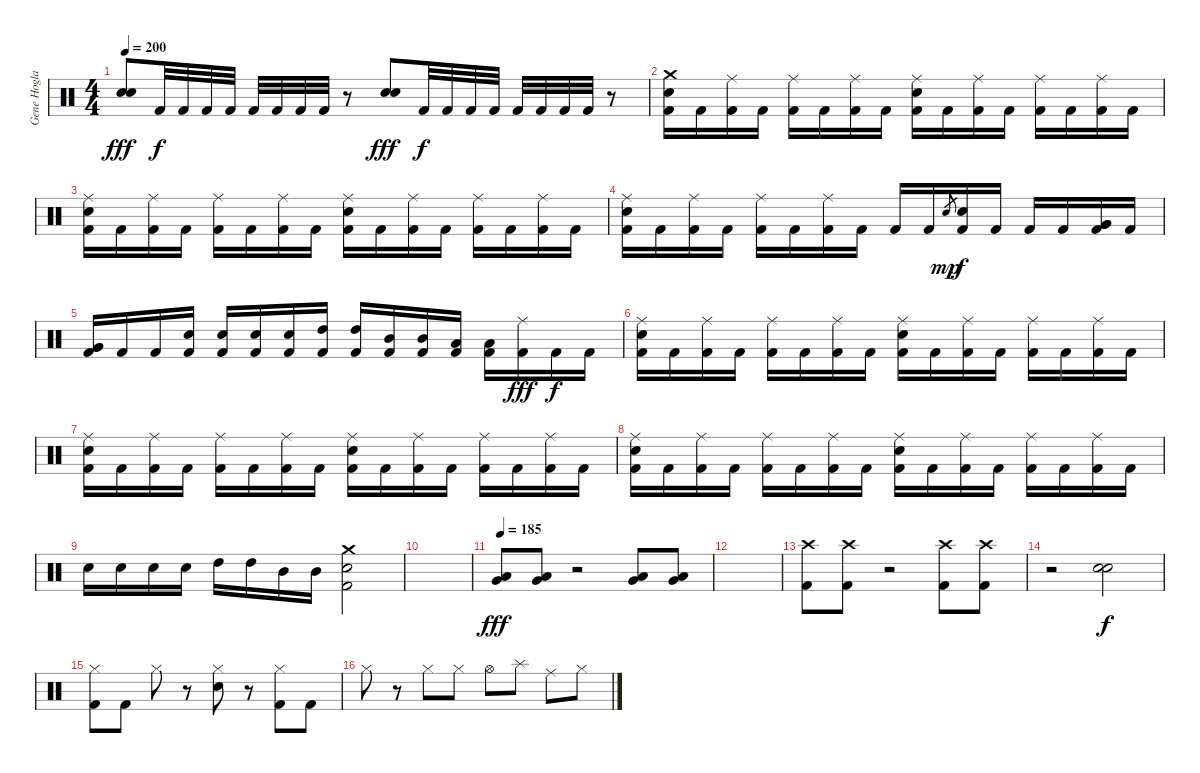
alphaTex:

\track ("Gene Hoglan" "Gene Hogla") {instrument percussion}
\staff {score}
\articulation defaults
\ts (4 4)
\tempo 200
\clef neutral
\ks c
("Snare (hit) 2" "Snare (hit) 2").8{dy fff} "Kick (hit) 2".32{dy f} "Kick (hit) 2".32 "Kick (hit) 2".32 "Kick (hit) 2".32 "Kick (hit) 2".32 "Kick (hit) 2".32 "Kick (hit) 2".32 "Kick (hit) 2".32 r.8 ("Snare (hit) 2" "Snare (hit) 2").8{dy fff} "Kick (hit) 2".32{dy f} "Kick (hit) 2".32 "Kick (hit) 2".32 "Kick (hit) 2".32 "Kick (hit) 2".32 "Kick (hit) 2".32 "Kick (hit) 2".32 "Kick (hit) 2".32 r.8 |
("Crash medium (hit)" "Snare (hit) 2" "Kick (hit) 2").16 "Kick (hit) 2".16 ("Ride (middle)" "Kick (hit) 2").16 "Kick (hit) 2".16 ("Ride (middle)" "Kick (hit) 2").16 "Kick (hit) 2".16 ("Ride (middle)" "Kick (hit) 2").16 "Kick (hit) 2".16 ("Ride (middle)" "Snare (hit) 2" "Kick (hit) 2").16 "Kick (hit) 2".16 ("Ride (middle)" "Kick (hit) 2").16 "Kick (hit) 2".16 ("Ride (middle)" "Kick (hit) 2").16 "Kick (hit) 2".16 ("Ride (middle)" "Kick (hit) 2").16 "Kick (hit) 2".16 |
("Ride (middle)" "Snare (hit) 2" "Kick (hit) 2").16 "Kick (hit) 2".16 ("Ride (middle)" "Kick (hit) 2").16 "Kick (hit) 2".16 ("Ride (middle)" "Kick (hit) 2").16 "Kick (hit) 2".16 ("Ride (middle)" "Kick (hit) 2").16 "Kick (hit) 2".16 ("Ride (middle)" "Snare (hit) 2" "Kick (hit) 2").16 "Kick (hit) 2".16 ("Ride (middle)" "Kick (hit) 2").16 "Kick (hit) 2".16 ("Ride (middle)" "Kick (hit) 2").16 "Kick (hit) 2".16 ("Ride (middle)" "Kick (hit) 2").16 "Kick (hit) 2".16 |
("Ride (middle)" "Snare (hit) 2" "Kick (hit) 2").16 "Kick (hit) 2".16 ("Ride (middle)" "Kick (hit) 2").16 "Kick (hit) 2".16 ("Ride (middle)" "Kick (hit) 2").16 "Kick (hit) 2".16 ("Ride (middle)" "Kick (hit) 2").16 "Kick (hit) 2".16 "Kick (hit) 2".16 "Kick (hit) 2".16 "Snare (hit) 2".8{gr dy mp} ("Snare (hit) 2" "Kick (hit) 2").16{dy f} "Kick (hit) 2".16 "Kick (hit) 2".16 "Kick (hit) 2".16 ("Very Low Tom (hit)" "Very Low Tom (hit)" "Kick (hit) 2").16 "Kick (hit) 2".16 |
("Very Low Tom (hit)" "Very Low Tom (hit)" "Kick (hit) 2").16 "Kick (hit) 2".16 "Kick (hit) 2".16 ("Snare (hit) 2" "Kick (hit) 2").16 ("Snare (hit) 2" "Kick (hit) 2").16 ("Snare (hit) 2" "Kick (hit) 2").16 ("Snare (hit) 2" "Kick (hit) 2").16 ("High Tom (hit)" "Kick (hit) 2").16 ("High Tom (hit)" "Kick (hit) 2").16 ("Mid Tom (hit)" "Kick (hit) 2").16 ("Mid Tom (hit)" "Kick (hit) 2").16 ("Low Tom (hit)" "Kick (hit) 2").16 ("Low Tom (hit)" "Kick (hit) 2").16 ("Ride (middle)" "Kick (hit) 2").16{dy fff} "Kick (hit) 2".16{dy f} "Kick (hit) 2".16 |
("Ride (middle)" "Snare (hit) 2" "Kick (hit) 2").16 "Kick (hit) 2".16 ("Ride (middle)" "Kick (hit) 2").16 "Kick (hit) 2".16 ("Ride (middle)" "Kick (hit) 2").16 "Kick (hit) 2".16 ("Ride (middle)" "Kick (hit) 2").16 "Kick (hit) 2".16 ("Ride (middle)" "Snare (hit) 2" "Kick (hit) 2").16 "Kick (hit) 2".16 ("Ride (middle)" "Kick (hit) 2").16 "Kick (hit) 2".16 ("Ride (middle)" "Kick (hit) 2").16 "Kick (hit) 2".16 ("Ride (middle)" "Kick (hit) 2").16 "Kick (hit) 2".16 |
("Ride (middle)" "Snare (hit) 2" "Kick (hit) 2").16 "Kick (hit) 2".16 ("Ride (middle)" "Kick (hit) 2").16 "Kick (hit) 2".16 ("Ride (middle)" "Kick (hit) 2").16 "Kick (hit) 2".16 ("Ride (middle)" "Kick (hit) 2").16 "Kick (hit) 2".16 ("Ride (middle)" "Snare (hit) 2" "Kick (hit) 2").16 "Kick (hit) 2".16 ("Ride (middle)" "Kick (hit) 2").16 "Kick (hit) 2".16 ("Ride (middle)" "Kick (hit) 2").16 "Kick (hit) 2".16 ("Ride (middle)" "Kick (hit) 2").16 "Kick (hit) 2".16 |
("Ride (middle)" "Snare (hit) 2" "Kick (hit) 2").16 "Kick (hit) 2".16 ("Ride (middle)" "Kick (hit) 2").16 "Kick (hit) 2".16 ("Ride (middle)" "Kick (hit) 2").16 "Kick (hit) 2".16 ("Ride (middle)" "Kick (hit) 2").16 "Kick (hit) 2".16 ("Ride (middle)" "Snare (hit) 2" "Kick (hit) 2").16 "Kick (hit) 2".16 ("Ride (middle)" "Kick (hit) 2").16 "Kick (hit) 2".16 ("Ride (middle)" "Kick (hit) 2").16 "Kick (hit) 2".16 ("Ride (middle)" "Kick (hit) 2").16 "Kick (hit) 2".16 |
"Snare (hit) 2".16 "Snare (hit) 2".16 "Snare (hit) 2".16 "Snare (hit) 2".16 "High Tom (hit)".16 "High Tom (hit)".16 "Mid Tom (hit)".16 "Mid Tom (hit)".16 ("Crash medium (hit)" "Snare (hit) 2" "Kick (hit) 2").2 |
|
\tempo 185
("Low Floor Tom (hit)" "Very Low Tom (hit)").8{dy fff} ("Low Floor Tom (hit)" "Very Low Tom (hit)").8 r.2 ("Low Floor Tom (hit)" "Very Low Tom (hit)").8 ("Low Floor Tom (hit)" "Very Low Tom (hit)").8 |
|
("Crash high (hit)" "Kick (hit) 2").8 ("Crash high (hit)" "Kick (hit) 2").8 r.2 ("Crash high (hit)" "Kick (hit) 2").8 ("Crash high (hit)" "Kick (hit) 2").8 |
r.2 ("Snare (hit) 2" "Snare (hit) 2").2{dy f} |
("Hi-Hat (closed)" "Kick (hit) 2").8 "Kick (hit) 2".8 "Hi-Hat (closed)".8 r.8 ("Hi-Hat (closed)" "Snare (hit) 2").8 r.8 ("Hi-Hat (closed)" "Kick (hit) 2").8 "Kick (hit) 2".8 |
"Hi-Hat (closed)".8 r.8 "Hi-Hat (closed)".8 "Hi-Hat (closed)".8 "Hi-Hat (open)".8 "Splash (hit)".8 "Ride (middle)".8 "Hi-Hat (closed)".8
